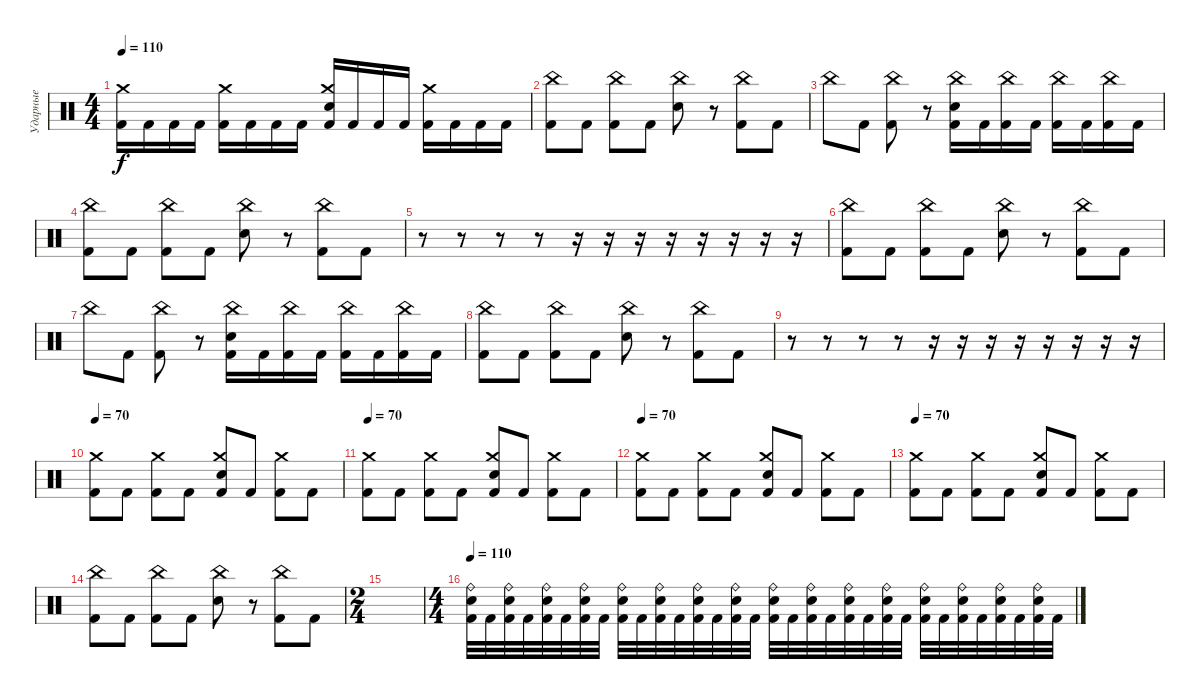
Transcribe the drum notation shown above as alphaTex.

\track ("Ударные" "Ударные") {instrument percussion}
\staff {score}
\articulation defaults
\ts (4 4)
\tempo 110
\clef neutral
\ks c
("Kick (hit) 2" "Crash medium (hit)").16{dy f} "Kick (hit) 2".16 "Kick (hit) 2".16 "Kick (hit) 2".16 ("Kick (hit) 2" "Crash medium (hit)").16 "Kick (hit) 2".16 "Kick (hit) 2".16 "Kick (hit) 2".16 ("Kick (hit) 2" "Crash medium (hit)" "Electric Snare (hit)").16 "Kick (hit) 2".16 "Kick (hit) 2".16 "Kick (hit) 2".16 ("Kick (hit) 2" "Crash medium (hit)").16 "Kick (hit) 2".16 "Kick (hit) 2".16 "Kick (hit) 2".16 |
("Kick (hit) 2" "China (hit)").8 "Kick (hit) 2".8 ("Kick (hit) 2" "China (hit)").8 "Kick (hit) 2".8 ("Electric Snare (hit)" "China (hit)").8 r.8 ("Kick (hit) 2" "China (hit)").8 "Kick (hit) 2".8 |
"China (hit)".8 "Kick (hit) 2".8 ("Kick (hit) 2" "China (hit)").8 r.8 ("Kick (hit) 2" "China (hit)" "Electric Snare (hit)").16 "Kick (hit) 2".16 ("Kick (hit) 2" "China (hit)").16 "Kick (hit) 2".16 ("Kick (hit) 2" "China (hit)").16 "Kick (hit) 2".16 ("Kick (hit) 2" "China (hit)").16 "Kick (hit) 2".16 |
("Kick (hit) 2" "China (hit)").8 "Kick (hit) 2".8 ("Kick (hit) 2" "China (hit)").8 "Kick (hit) 2".8 ("Electric Snare (hit)" "China (hit)").8 r.8 ("Kick (hit) 2" "China (hit)").8 "Kick (hit) 2".8 |
r.8 r.8 r.8 r.8 r.16 r.16 r.16 r.16 r.16 r.16 r.16 r.16 |
("Kick (hit) 2" "China (hit)").8 "Kick (hit) 2".8 ("Kick (hit) 2" "China (hit)").8 "Kick (hit) 2".8 ("Electric Snare (hit)" "China (hit)").8 r.8 ("Kick (hit) 2" "China (hit)").8 "Kick (hit) 2".8 |
"China (hit)".8 "Kick (hit) 2".8 ("Kick (hit) 2" "China (hit)").8 r.8 ("Kick (hit) 2" "China (hit)" "Electric Snare (hit)").16 "Kick (hit) 2".16 ("Kick (hit) 2" "China (hit)").16 "Kick (hit) 2".16 ("Kick (hit) 2" "China (hit)").16 "Kick (hit) 2".16 ("Kick (hit) 2" "China (hit)").16 "Kick (hit) 2".16 |
("Kick (hit) 2" "China (hit)").8 "Kick (hit) 2".8 ("Kick (hit) 2" "China (hit)").8 "Kick (hit) 2".8 ("Electric Snare (hit)" "China (hit)").8 r.8 ("Kick (hit) 2" "China (hit)").8 "Kick (hit) 2".8 |
r.8 r.8 r.8 r.8 r.16 r.16 r.16 r.16 r.16 r.16 r.16 r.16 |
\tempo 70
("Kick (hit) 2" "Crash medium (hit)").8 "Kick (hit) 2".8 ("Kick (hit) 2" "Crash medium (hit)").8 "Kick (hit) 2".8 ("Kick (hit) 2" "Crash medium (hit)" "Electric Snare (hit)").8 "Kick (hit) 2".8 ("Kick (hit) 2" "Crash medium (hit)").8 "Kick (hit) 2".8 |
\tempo 70
("Kick (hit) 2" "Crash medium (hit)").8 "Kick (hit) 2".8 ("Kick (hit) 2" "Crash medium (hit)").8 "Kick (hit) 2".8 ("Kick (hit) 2" "Crash medium (hit)" "Electric Snare (hit)").8 "Kick (hit) 2".8 ("Kick (hit) 2" "Crash medium (hit)").8 "Kick (hit) 2".8 |
\tempo 70
("Kick (hit) 2" "Crash medium (hit)").8 "Kick (hit) 2".8 ("Kick (hit) 2" "Crash medium (hit)").8 "Kick (hit) 2".8 ("Kick (hit) 2" "Crash medium (hit)" "Electric Snare (hit)").8 "Kick (hit) 2".8 ("Kick (hit) 2" "Crash medium (hit)").8 "Kick (hit) 2".8 |
\tempo 70
("Kick (hit) 2" "Crash medium (hit)").8 "Kick (hit) 2".8 ("Kick (hit) 2" "Crash medium (hit)").8 "Kick (hit) 2".8 ("Kick (hit) 2" "Crash medium (hit)" "Electric Snare (hit)").8 "Kick (hit) 2".8 ("Kick (hit) 2" "Crash medium (hit)").8 "Kick (hit) 2".8 |
("Kick (hit) 2" "China (hit)").8 "Kick (hit) 2".8 ("Kick (hit) 2" "China (hit)").8 "Kick (hit) 2".8 ("Electric Snare (hit)" "China (hit)").8 r.8 ("Kick (hit) 2" "China (hit)").8 "Kick (hit) 2".8 |
\ts (2 4)
|
\ts (4 4)
\tempo 110
("Kick (hit) 2" "Ride (bell)" "Electric Snare (hit)").32 "Kick (hit) 2".32 ("Kick (hit) 2" "Ride (bell)" "Electric Snare (hit)").32 "Kick (hit) 2".32 ("Kick (hit) 2" "Ride (bell)" "Electric Snare (hit)").32 "Kick (hit) 2".32 ("Kick (hit) 2" "Ride (bell)" "Electric Snare (hit)").32 "Kick (hit) 2".32 ("Kick (hit) 2" "Ride (bell)" "Electric Snare (hit)").32 "Kick (hit) 2".32 ("Kick (hit) 2" "Ride (bell)" "Electric Snare (hit)").32 "Kick (hit) 2".32 ("Kick (hit) 2" "Ride (bell)" "Electric Snare (hit)").32 "Kick (hit) 2".32 ("Kick (hit) 2" "Ride (bell)" "Electric Snare (hit)").32 "Kick (hit) 2".32 ("Kick (hit) 2" "Ride (bell)" "Electric Snare (hit)").32 "Kick (hit) 2".32 ("Kick (hit) 2" "Ride (bell)" "Electric Snare (hit)").32 "Kick (hit) 2".32 ("Kick (hit) 2" "Ride (bell)" "Electric Snare (hit)").32 "Kick (hit) 2".32 ("Kick (hit) 2" "Ride (bell)" "Electric Snare (hit)").32 "Kick (hit) 2".32 ("Kick (hit) 2" "Ride (bell)" "Electric Snare (hit)").32 "Kick (hit) 2".32 ("Kick (hit) 2" "Ride (bell)" "Electric Snare (hit)").32 "Kick (hit) 2".32 ("Kick (hit) 2" "Ride (bell)" "Electric Snare (hit)").32 "Kick (hit) 2".32 ("Kick (hit) 2" "Ride (bell)" "Electric Snare (hit)").32 "Kick (hit) 2".32
